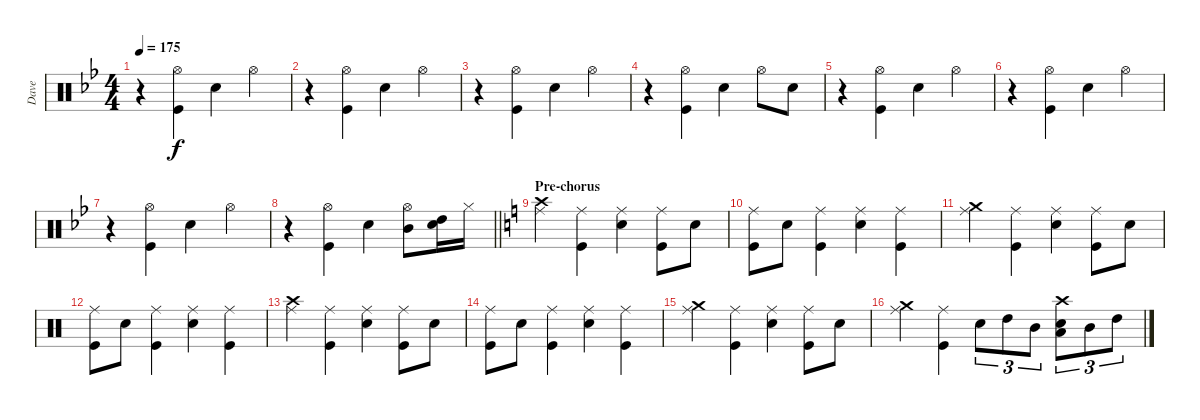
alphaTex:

\track ("Dave" "Dave") {instrument percussion}
\staff {score}
\articulation defaults
\ts (4 4)
\tempo 175
\clef neutral
\ks gminor
r.4{dy f} ("Hi-Hat (open)" "Kick (hit)").4 "Snare (hit) 2".4 "Hi-Hat (open)".4 |
r.4 ("Hi-Hat (open)" "Kick (hit)").4 "Snare (hit) 2".4 "Hi-Hat (open)".4 |
r.4 ("Hi-Hat (open)" "Kick (hit)").4 "Snare (hit) 2".4 "Hi-Hat (open)".4 |
r.4 ("Hi-Hat (open)" "Kick (hit)").4 "Snare (hit) 2".4 "Hi-Hat (open)".8 "Snare (hit) 2".8 |
r.4 ("Hi-Hat (open)" "Kick (hit)").4 "Snare (hit) 2".4 "Hi-Hat (open)".4 |
r.4 ("Hi-Hat (open)" "Kick (hit)").4 "Snare (hit) 2".4 "Hi-Hat (open)".4 |
r.4 ("Hi-Hat (open)" "Kick (hit)").4 "Snare (hit) 2".4 "Hi-Hat (open)".4 |
\barLineRight lightlight
r.4 ("Hi-Hat (open)" "Kick (hit)").4 "Snare (hit) 2".4 ("Mid Tom (hit)" "Hi-Hat (open)").8 ("High Tom (hit)" "Snare (hit) 2").16 "Hi-Hat (closed)".16 |
\section ("" "Pre-chorus")
\ks c
("Crash high (hit)" "Ride (middle)").4 ("Ride (middle)" "Kick (hit)").4 ("Ride (middle)" "Snare (hit) 2").4 ("Ride (middle)" "Kick (hit)").8 "Snare (hit) 2".8 |
("Ride (middle)" "Kick (hit)").8 "Snare (hit) 2".8 ("Ride (middle)" "Kick (hit)").4 ("Ride (middle)" "Snare (hit) 2").4 ("Ride (middle)" "Kick (hit)").4 |
("Crash medium (hit)" "Ride (middle)").4 ("Ride (middle)" "Kick (hit)").4 ("Ride (middle)" "Snare (hit) 2").4 ("Ride (middle)" "Kick (hit)").8 "Snare (hit) 2".8 |
("Ride (middle)" "Kick (hit)").8 "Snare (hit) 2".8 ("Ride (middle)" "Kick (hit)").4 ("Ride (middle)" "Snare (hit) 2").4 ("Ride (middle)" "Kick (hit)").4 |
("Crash high (hit)" "Ride (middle)").4 ("Ride (middle)" "Kick (hit)").4 ("Ride (middle)" "Snare (hit) 2").4 ("Ride (middle)" "Kick (hit)").8 "Snare (hit) 2".8 |
("Ride (middle)" "Kick (hit)").8 "Snare (hit) 2".8 ("Ride (middle)" "Kick (hit)").4 ("Ride (middle)" "Snare (hit) 2").4 ("Ride (middle)" "Kick (hit)").4 |
("Crash medium (hit)" "Ride (middle)").4 ("Ride (middle)" "Kick (hit)").4 ("Ride (middle)" "Snare (hit) 2").4 ("Ride (middle)" "Kick (hit)").8 "Snare (hit) 2".8 |
("Crash medium (hit)" "Ride (middle)").4 ("Ride (middle)" "Kick (hit)").4 "Snare (hit) 2".8{tu (3 2)} "High Tom (hit)".8{tu (3 2)} "Mid Tom (hit)".8{tu (3 2)} ("Crash high (hit)" "Snare (hit) 2" "Low Tom (hit)").8{tu (3 2)} "Mid Tom (hit)".8{tu (3 2)} "High Tom (hit)".8{tu (3 2)}
